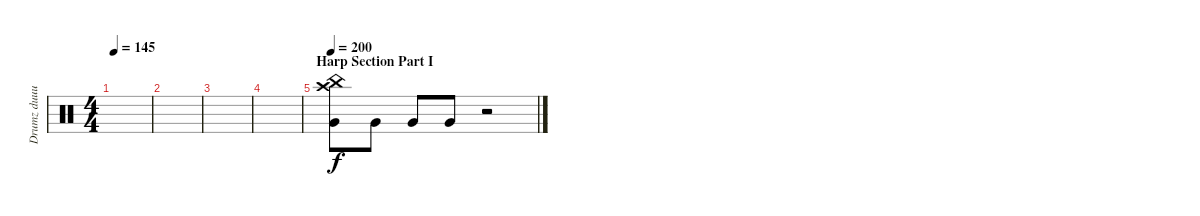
\track ("Drumz duuuuude" "Drumz duuu") {instrument percussion}
\staff {score}
\articulation defaults
\ts (4 4)
\tempo 145
\clef neutral
\ks c
|
|
|
|
\section ("" "Harp Section Part I")
\tempo 200
("Crash high (hit)" "China (hit)" "Very Low Tom (hit)").8 "Very Low Tom (hit)".8 "Very Low Tom (hit)".8 "Very Low Tom (hit)".8 r.2
